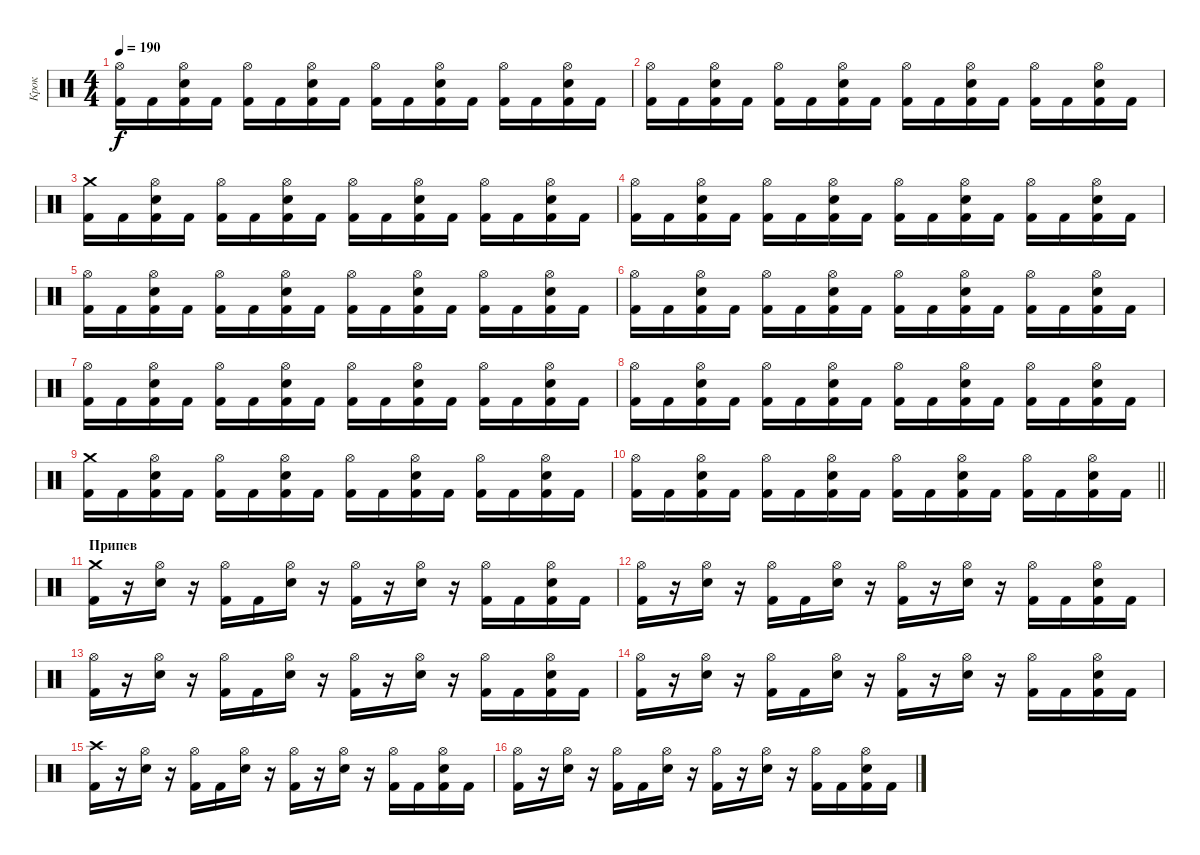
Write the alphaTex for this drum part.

\track ("Крок" "Крок") {instrument percussion}
\staff {score}
\articulation defaults
\ts (4 4)
\tempo 190
\clef neutral
\ks c
("Hi-Hat (open)" "Kick (hit) 2").16{dy f} "Kick (hit) 2".16 ("Hi-Hat (open)" "Electric Snare (hit)" "Kick (hit) 2").16 "Kick (hit) 2".16 ("Hi-Hat (open)" "Kick (hit) 2").16 "Kick (hit) 2".16 ("Hi-Hat (open)" "Electric Snare (hit)" "Kick (hit) 2").16 "Kick (hit) 2".16 ("Hi-Hat (open)" "Kick (hit) 2").16 "Kick (hit) 2".16 ("Hi-Hat (open)" "Electric Snare (hit)" "Kick (hit) 2").16 "Kick (hit) 2".16 ("Hi-Hat (open)" "Kick (hit) 2").16 "Kick (hit) 2".16 ("Hi-Hat (open)" "Electric Snare (hit)" "Kick (hit) 2").16 "Kick (hit) 2".16 |
("Hi-Hat (open)" "Kick (hit) 2").16 "Kick (hit) 2".16 ("Hi-Hat (open)" "Electric Snare (hit)" "Kick (hit) 2").16 "Kick (hit) 2".16 ("Hi-Hat (open)" "Kick (hit) 2").16 "Kick (hit) 2".16 ("Hi-Hat (open)" "Electric Snare (hit)" "Kick (hit) 2").16 "Kick (hit) 2".16 ("Hi-Hat (open)" "Kick (hit) 2").16 "Kick (hit) 2".16 ("Hi-Hat (open)" "Electric Snare (hit)" "Kick (hit) 2").16 "Kick (hit) 2".16 ("Hi-Hat (open)" "Kick (hit) 2").16 "Kick (hit) 2".16 ("Hi-Hat (open)" "Electric Snare (hit)" "Kick (hit) 2").16 "Kick (hit) 2".16 |
("Crash medium (hit)" "Kick (hit) 2").16 "Kick (hit) 2".16 ("Hi-Hat (open)" "Electric Snare (hit)" "Kick (hit) 2").16 "Kick (hit) 2".16 ("Hi-Hat (open)" "Kick (hit) 2").16 "Kick (hit) 2".16 ("Hi-Hat (open)" "Electric Snare (hit)" "Kick (hit) 2").16 "Kick (hit) 2".16 ("Hi-Hat (open)" "Kick (hit) 2").16 "Kick (hit) 2".16 ("Hi-Hat (open)" "Electric Snare (hit)" "Kick (hit) 2").16 "Kick (hit) 2".16 ("Hi-Hat (open)" "Kick (hit) 2").16 "Kick (hit) 2".16 ("Hi-Hat (open)" "Electric Snare (hit)" "Kick (hit) 2").16 "Kick (hit) 2".16 |
("Hi-Hat (open)" "Kick (hit) 2").16 "Kick (hit) 2".16 ("Hi-Hat (open)" "Electric Snare (hit)" "Kick (hit) 2").16 "Kick (hit) 2".16 ("Hi-Hat (open)" "Kick (hit) 2").16 "Kick (hit) 2".16 ("Hi-Hat (open)" "Electric Snare (hit)" "Kick (hit) 2").16 "Kick (hit) 2".16 ("Hi-Hat (open)" "Kick (hit) 2").16 "Kick (hit) 2".16 ("Hi-Hat (open)" "Electric Snare (hit)" "Kick (hit) 2").16 "Kick (hit) 2".16 ("Hi-Hat (open)" "Kick (hit) 2").16 "Kick (hit) 2".16 ("Hi-Hat (open)" "Electric Snare (hit)" "Kick (hit) 2").16 "Kick (hit) 2".16 |
("Hi-Hat (open)" "Kick (hit) 2").16 "Kick (hit) 2".16 ("Hi-Hat (open)" "Electric Snare (hit)" "Kick (hit) 2").16 "Kick (hit) 2".16 ("Hi-Hat (open)" "Kick (hit) 2").16 "Kick (hit) 2".16 ("Hi-Hat (open)" "Electric Snare (hit)" "Kick (hit) 2").16 "Kick (hit) 2".16 ("Hi-Hat (open)" "Kick (hit) 2").16 "Kick (hit) 2".16 ("Hi-Hat (open)" "Electric Snare (hit)" "Kick (hit) 2").16 "Kick (hit) 2".16 ("Hi-Hat (open)" "Kick (hit) 2").16 "Kick (hit) 2".16 ("Hi-Hat (open)" "Electric Snare (hit)" "Kick (hit) 2").16 "Kick (hit) 2".16 |
("Hi-Hat (open)" "Kick (hit) 2").16 "Kick (hit) 2".16 ("Hi-Hat (open)" "Electric Snare (hit)" "Kick (hit) 2").16 "Kick (hit) 2".16 ("Hi-Hat (open)" "Kick (hit) 2").16 "Kick (hit) 2".16 ("Hi-Hat (open)" "Electric Snare (hit)" "Kick (hit) 2").16 "Kick (hit) 2".16 ("Hi-Hat (open)" "Kick (hit) 2").16 "Kick (hit) 2".16 ("Hi-Hat (open)" "Electric Snare (hit)" "Kick (hit) 2").16 "Kick (hit) 2".16 ("Hi-Hat (open)" "Kick (hit) 2").16 "Kick (hit) 2".16 ("Hi-Hat (open)" "Electric Snare (hit)" "Kick (hit) 2").16 "Kick (hit) 2".16 |
("Hi-Hat (open)" "Kick (hit) 2").16 "Kick (hit) 2".16 ("Hi-Hat (open)" "Electric Snare (hit)" "Kick (hit) 2").16 "Kick (hit) 2".16 ("Hi-Hat (open)" "Kick (hit) 2").16 "Kick (hit) 2".16 ("Hi-Hat (open)" "Electric Snare (hit)" "Kick (hit) 2").16 "Kick (hit) 2".16 ("Hi-Hat (open)" "Kick (hit) 2").16 "Kick (hit) 2".16 ("Hi-Hat (open)" "Electric Snare (hit)" "Kick (hit) 2").16 "Kick (hit) 2".16 ("Hi-Hat (open)" "Kick (hit) 2").16 "Kick (hit) 2".16 ("Hi-Hat (open)" "Electric Snare (hit)" "Kick (hit) 2").16 "Kick (hit) 2".16 |
("Hi-Hat (open)" "Kick (hit) 2").16 "Kick (hit) 2".16 ("Hi-Hat (open)" "Electric Snare (hit)" "Kick (hit) 2").16 "Kick (hit) 2".16 ("Hi-Hat (open)" "Kick (hit) 2").16 "Kick (hit) 2".16 ("Hi-Hat (open)" "Electric Snare (hit)" "Kick (hit) 2").16 "Kick (hit) 2".16 ("Hi-Hat (open)" "Kick (hit) 2").16 "Kick (hit) 2".16 ("Hi-Hat (open)" "Electric Snare (hit)" "Kick (hit) 2").16 "Kick (hit) 2".16 ("Hi-Hat (open)" "Kick (hit) 2").16 "Kick (hit) 2".16 ("Hi-Hat (open)" "Electric Snare (hit)" "Kick (hit) 2").16 "Kick (hit) 2".16 |
("Crash medium (hit)" "Kick (hit) 2").16 "Kick (hit) 2".16 ("Hi-Hat (open)" "Electric Snare (hit)" "Kick (hit) 2").16 "Kick (hit) 2".16 ("Hi-Hat (open)" "Kick (hit) 2").16 "Kick (hit) 2".16 ("Hi-Hat (open)" "Electric Snare (hit)" "Kick (hit) 2").16 "Kick (hit) 2".16 ("Hi-Hat (open)" "Kick (hit) 2").16 "Kick (hit) 2".16 ("Hi-Hat (open)" "Electric Snare (hit)" "Kick (hit) 2").16 "Kick (hit) 2".16 ("Hi-Hat (open)" "Kick (hit) 2").16 "Kick (hit) 2".16 ("Hi-Hat (open)" "Electric Snare (hit)" "Kick (hit) 2").16 "Kick (hit) 2".16 |
\barLineRight lightlight
("Hi-Hat (open)" "Kick (hit) 2").16 "Kick (hit) 2".16 ("Hi-Hat (open)" "Electric Snare (hit)" "Kick (hit) 2").16 "Kick (hit) 2".16 ("Hi-Hat (open)" "Kick (hit) 2").16 "Kick (hit) 2".16 ("Hi-Hat (open)" "Electric Snare (hit)" "Kick (hit) 2").16 "Kick (hit) 2".16 ("Hi-Hat (open)" "Kick (hit) 2").16 "Kick (hit) 2".16 ("Hi-Hat (open)" "Electric Snare (hit)" "Kick (hit) 2").16 "Kick (hit) 2".16 ("Hi-Hat (open)" "Kick (hit) 2").16 "Kick (hit) 2".16 ("Hi-Hat (open)" "Electric Snare (hit)" "Kick (hit) 2").16 "Kick (hit) 2".16 |
\section ("" "Припев")
("Crash medium (hit)" "Kick (hit) 2").16 r.16 ("Hi-Hat (open)" "Electric Snare (hit)").16 r.16 ("Hi-Hat (open)" "Kick (hit) 2").16 "Kick (hit) 2".16 ("Hi-Hat (open)" "Electric Snare (hit)").16 r.16 ("Hi-Hat (open)" "Kick (hit) 2").16 r.16 ("Hi-Hat (open)" "Electric Snare (hit)").16 r.16 ("Hi-Hat (open)" "Kick (hit) 2").16 "Kick (hit) 2".16 ("Hi-Hat (open)" "Electric Snare (hit)" "Kick (hit) 2").16 "Kick (hit) 2".16 |
("Hi-Hat (open)" "Kick (hit) 2").16 r.16 ("Hi-Hat (open)" "Electric Snare (hit)").16 r.16 ("Hi-Hat (open)" "Kick (hit) 2").16 "Kick (hit) 2".16 ("Hi-Hat (open)" "Electric Snare (hit)").16 r.16 ("Hi-Hat (open)" "Kick (hit) 2").16 r.16 ("Hi-Hat (open)" "Electric Snare (hit)").16 r.16 ("Hi-Hat (open)" "Kick (hit) 2").16 "Kick (hit) 2".16 ("Hi-Hat (open)" "Electric Snare (hit)" "Kick (hit) 2").16 "Kick (hit) 2".16 |
("Hi-Hat (open)" "Kick (hit) 2").16 r.16 ("Hi-Hat (open)" "Electric Snare (hit)").16 r.16 ("Hi-Hat (open)" "Kick (hit) 2").16 "Kick (hit) 2".16 ("Hi-Hat (open)" "Electric Snare (hit)").16 r.16 ("Hi-Hat (open)" "Kick (hit) 2").16 r.16 ("Hi-Hat (open)" "Electric Snare (hit)").16 r.16 ("Hi-Hat (open)" "Kick (hit) 2").16 "Kick (hit) 2".16 ("Hi-Hat (open)" "Electric Snare (hit)" "Kick (hit) 2").16 "Kick (hit) 2".16 |
("Hi-Hat (open)" "Kick (hit) 2").16 r.16 ("Hi-Hat (open)" "Electric Snare (hit)").16 r.16 ("Hi-Hat (open)" "Kick (hit) 2").16 "Kick (hit) 2".16 ("Hi-Hat (open)" "Electric Snare (hit)").16 r.16 ("Hi-Hat (open)" "Kick (hit) 2").16 r.16 ("Hi-Hat (open)" "Electric Snare (hit)").16 r.16 ("Hi-Hat (open)" "Kick (hit) 2").16 "Kick (hit) 2".16 ("Hi-Hat (open)" "Electric Snare (hit)" "Kick (hit) 2").16 "Kick (hit) 2".16 |
("Crash high (hit)" "Kick (hit) 2").16 r.16 ("Hi-Hat (open)" "Electric Snare (hit)").16 r.16 ("Hi-Hat (open)" "Kick (hit) 2").16 "Kick (hit) 2".16 ("Hi-Hat (open)" "Electric Snare (hit)").16 r.16 ("Hi-Hat (open)" "Kick (hit) 2").16 r.16 ("Hi-Hat (open)" "Electric Snare (hit)").16 r.16 ("Hi-Hat (open)" "Kick (hit) 2").16 "Kick (hit) 2".16 ("Hi-Hat (open)" "Electric Snare (hit)" "Kick (hit) 2").16 "Kick (hit) 2".16 |
("Hi-Hat (open)" "Kick (hit) 2").16 r.16 ("Hi-Hat (open)" "Electric Snare (hit)").16 r.16 ("Hi-Hat (open)" "Kick (hit) 2").16 "Kick (hit) 2".16 ("Hi-Hat (open)" "Electric Snare (hit)").16 r.16 ("Hi-Hat (open)" "Kick (hit) 2").16 r.16 ("Hi-Hat (open)" "Electric Snare (hit)").16 r.16 ("Hi-Hat (open)" "Kick (hit) 2").16 "Kick (hit) 2".16 ("Hi-Hat (open)" "Electric Snare (hit)" "Kick (hit) 2").16 "Kick (hit) 2".16
